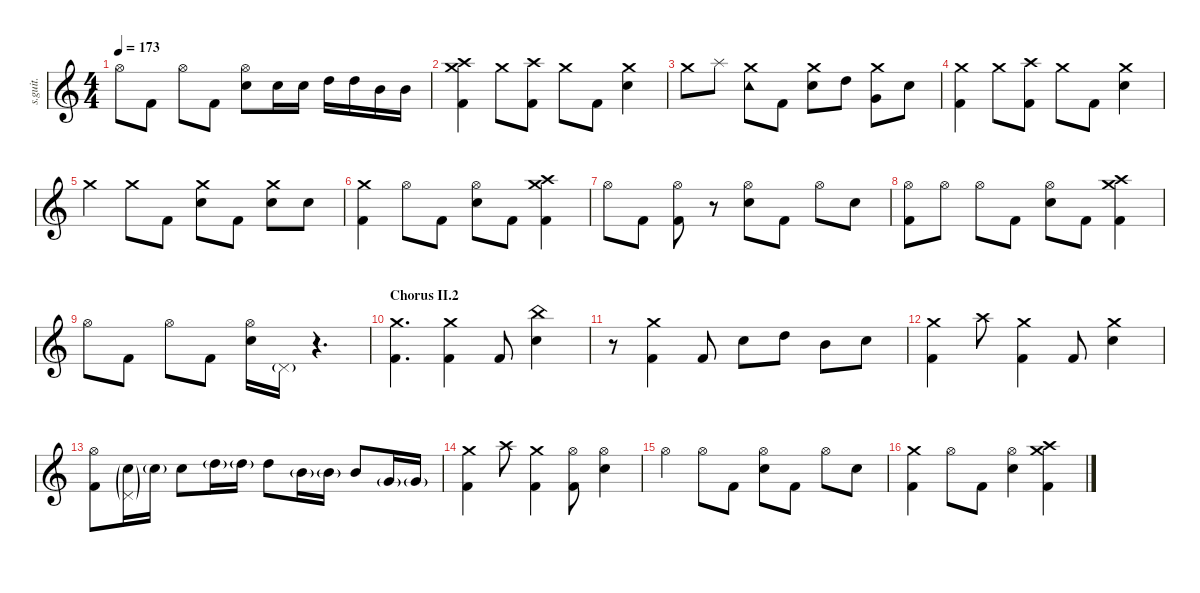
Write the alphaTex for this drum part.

\defaultSystemsLayout 4
\hideDynamics
\bracketExtendMode nobrackets
\track ("II" "s.guit.") {instrument percussion}
\staff {score}
\articulation defaults
\ts (4 4)
\tempo 173
\clef g2
\ks c "Hi-Hat (open)".8{lyrics (0 "") lyrics (1 "") lyrics (2 "") lyrics (3 "") lyrics (4 "") dy mf} "Kick (hit) 2".8{lyrics (0 "") lyrics (1 "") lyrics (2 "") lyrics (3 "") lyrics (4 "")} "Hi-Hat (open)".8{lyrics (0 "") lyrics (1 "") lyrics (2 "") lyrics (3 "") lyrics (4 "")} "Kick (hit) 2".8{lyrics (0 "") lyrics (1 "") lyrics (2 "") lyrics (3 "") lyrics (4 "")}
("Hi-Hat (open)" "Snare (hit) 2").8{lyrics (0 "") lyrics (1 "") lyrics (2 "") lyrics (3 "") lyrics (4 "")} "Snare (hit) 2".16{lyrics (0 "") lyrics (1 "") lyrics (2 "") lyrics (3 "") lyrics (4 "")} "Snare (hit) 2".16{lyrics (0 "") lyrics (1 "") lyrics (2 "") lyrics (3 "") lyrics (4 "")} "High Tom (hit)".16{lyrics (0 "") lyrics (1 "") lyrics (2 "") lyrics (3 "") lyrics (4 "")} "High Tom (hit)".16{lyrics (0 "") lyrics (1 "") lyrics (2 "") lyrics (3 "") lyrics (4 "")} "Mid Tom (hit)".16{lyrics (0 "") lyrics (1 "") lyrics (2 "") lyrics (3 "") lyrics (4 "")} "Mid Tom (hit)".16{lyrics (0 "") lyrics (1 "") lyrics (2 "") lyrics (3 "") lyrics (4 "")} |
("Kick (hit) 2" "Crash high (hit)" "Crash medium (hit)").4{lyrics (0 "") lyrics (1 "") lyrics (2 "") lyrics (3 "") lyrics (4 "")} "Crash medium (hit)".8{lyrics (0 "") lyrics (1 "") lyrics (2 "") lyrics (3 "") lyrics (4 "")} ("Kick (hit) 2" "Crash high (hit)").8{lyrics (0 "") lyrics (1 "") lyrics (2 "") lyrics (3 "") lyrics (4 "")} "Crash medium (hit)".8{lyrics (0 "") lyrics (1 "") lyrics (2 "") lyrics (3 "") lyrics (4 "")} "Kick (hit) 2".8{lyrics (0 "") lyrics (1 "") lyrics (2 "") lyrics (3 "") lyrics (4 "")} ("Snare (hit) 2" "Crash medium (hit)").4{lyrics (0 "") lyrics (1 "") lyrics (2 "") lyrics (3 "") lyrics (4 "")} |
"Crash medium (hit)".8{lyrics (0 "") lyrics (1 "") lyrics (2 "") lyrics (3 "") lyrics (4 "")} "Splash (hit)".8{lyrics (0 "") lyrics (1 "") lyrics (2 "") lyrics (3 "") lyrics (4 "")} ("Crash medium (hit)" "Tambourine (hit)").8{lyrics (0 "") lyrics (1 "") lyrics (2 "") lyrics (3 "") lyrics (4 "")} "Kick (hit) 2".8{lyrics (0 "") lyrics (1 "") lyrics (2 "") lyrics (3 "") lyrics (4 "")} ("Crash medium (hit)" "Snare (hit) 2").8{lyrics (0 "") lyrics (1 "") lyrics (2 "") lyrics (3 "") lyrics (4 "")} "High Tom (hit)".8{lyrics (0 "") lyrics (1 "") lyrics (2 "") lyrics (3 "") lyrics (4 "")} ("Crash medium (hit)" "Very Low Tom (hit)").8{lyrics (0 "") lyrics (1 "") lyrics (2 "") lyrics (3 "") lyrics (4 "")} "Snare (hit) 2".8{lyrics (0 "") lyrics (1 "") lyrics (2 "") lyrics (3 "") lyrics (4 "")} |
("Kick (hit) 2" "Crash medium (hit)").4{lyrics (0 "") lyrics (1 "") lyrics (2 "") lyrics (3 "") lyrics (4 "")} "Crash medium (hit)".8{lyrics (0 "") lyrics (1 "") lyrics (2 "") lyrics (3 "") lyrics (4 "")} ("Kick (hit) 2" "Crash high (hit)").8{lyrics (0 "") lyrics (1 "") lyrics (2 "") lyrics (3 "") lyrics (4 "")} "Crash medium (hit)".8{lyrics (0 "") lyrics (1 "") lyrics (2 "") lyrics (3 "") lyrics (4 "")} "Kick (hit) 2".8{lyrics (0 "") lyrics (1 "") lyrics (2 "") lyrics (3 "") lyrics (4 "")} ("Snare (hit) 2" "Crash medium (hit)").4{lyrics (0 "") lyrics (1 "") lyrics (2 "") lyrics (3 "") lyrics (4 "")} |
"Crash medium (hit)".4{lyrics (0 "") lyrics (1 "") lyrics (2 "") lyrics (3 "") lyrics (4 "")} "Crash medium (hit)".8{lyrics (0 "") lyrics (1 "") lyrics (2 "") lyrics (3 "") lyrics (4 "")} "Kick (hit) 2".8{lyrics (0 "") lyrics (1 "") lyrics (2 "") lyrics (3 "") lyrics (4 "")} ("Crash medium (hit)" "Snare (hit) 2").8{lyrics (0 "") lyrics (1 "") lyrics (2 "") lyrics (3 "") lyrics (4 "")} "Kick (hit) 2".8{lyrics (0 "") lyrics (1 "") lyrics (2 "") lyrics (3 "") lyrics (4 "")} ("Snare (hit) 2" "Crash medium (hit)").8{lyrics (0 "") lyrics (1 "") lyrics (2 "") lyrics (3 "") lyrics (4 "")} "Snare (hit) 2".8{lyrics (0 "") lyrics (1 "") lyrics (2 "") lyrics (3 "") lyrics (4 "")} |
("Kick (hit) 2" "Crash medium (hit)").4{lyrics (0 "") lyrics (1 "") lyrics (2 "") lyrics (3 "") lyrics (4 "")} "Hi-Hat (open)".8{lyrics (0 "") lyrics (1 "") lyrics (2 "") lyrics (3 "") lyrics (4 "")} "Kick (hit) 2".8{lyrics (0 "") lyrics (1 "") lyrics (2 "") lyrics (3 "") lyrics (4 "")} ("Snare (hit) 2" "Hi-Hat (open)").8{lyrics (0 "") lyrics (1 "") lyrics (2 "") lyrics (3 "") lyrics (4 "")} "Kick (hit) 2".8{lyrics (0 "") lyrics (1 "") lyrics (2 "") lyrics (3 "") lyrics (4 "")} ("Kick (hit) 2" "Crash high (hit)" "Crash medium (hit)").4{lyrics (0 "") lyrics (1 "") lyrics (2 "") lyrics (3 "") lyrics (4 "")} |
"Hi-Hat (open)".8{lyrics (0 "") lyrics (1 "") lyrics (2 "") lyrics (3 "") lyrics (4 "")} "Kick (hit) 2".8{lyrics (0 "") lyrics (1 "") lyrics (2 "") lyrics (3 "") lyrics (4 "")} ("Hi-Hat (open)" "Kick (hit) 2").8{lyrics (0 "") lyrics (1 "") lyrics (2 "") lyrics (3 "") lyrics (4 "")} r.8 ("Hi-Hat (open)" "Snare (hit) 2").8{lyrics (0 "") lyrics (1 "") lyrics (2 "") lyrics (3 "") lyrics (4 "")} "Kick (hit) 2".8{lyrics (0 "") lyrics (1 "") lyrics (2 "") lyrics (3 "") lyrics (4 "")} "Hi-Hat (open)".8{lyrics (0 "") lyrics (1 "") lyrics (2 "") lyrics (3 "") lyrics (4 "")} "Snare (hit) 2".8{lyrics (0 "") lyrics (1 "") lyrics (2 "") lyrics (3 "") lyrics (4 "")} |
("Kick (hit) 2" "Hi-Hat (open)").8{lyrics (0 "") lyrics (1 "") lyrics (2 "") lyrics (3 "") lyrics (4 "")} "Hi-Hat (open)".8{lyrics (0 "") lyrics (1 "") lyrics (2 "") lyrics (3 "") lyrics (4 "")} "Hi-Hat (open)".8{lyrics (0 "") lyrics (1 "") lyrics (2 "") lyrics (3 "") lyrics (4 "")} "Kick (hit) 2".8{lyrics (0 "") lyrics (1 "") lyrics (2 "") lyrics (3 "") lyrics (4 "")} ("Snare (hit) 2" "Hi-Hat (open)").8{lyrics (0 "") lyrics (1 "") lyrics (2 "") lyrics (3 "") lyrics (4 "")} "Kick (hit) 2".8{lyrics (0 "") lyrics (1 "") lyrics (2 "") lyrics (3 "") lyrics (4 "")} ("Kick (hit) 2" "Crash high (hit)" "Crash medium (hit)").4{lyrics (0 "") lyrics (1 "") lyrics (2 "") lyrics (3 "") lyrics (4 "")} |
"Hi-Hat (open)".8{lyrics (0 "") lyrics (1 "") lyrics (2 "") lyrics (3 "") lyrics (4 "")} "Kick (hit) 2".8{lyrics (0 "") lyrics (1 "") lyrics (2 "") lyrics (3 "") lyrics (4 "")} "Hi-Hat (open)".8{lyrics (0 "") lyrics (1 "") lyrics (2 "") lyrics (3 "") lyrics (4 "")} "Kick (hit) 2".8{lyrics (0 "") lyrics (1 "") lyrics (2 "") lyrics (3 "") lyrics (4 "")} ("Snare (hit) 2" "Hi-Hat (open)").16{lyrics (0 "") lyrics (1 "") lyrics (2 "") lyrics (3 "") lyrics (4 "")} "Pedal Hi-Hat (hit)"{g}.16{lyrics (0 "") lyrics (1 "") lyrics (2 "") lyrics (3 "") lyrics (4 "") dy pp} r.4{d} |
\section ("" "Chorus II.2")
("Kick (hit) 2" "Crash medium (hit)").4{d lyrics (0 "") lyrics (1 "") lyrics (2 "") lyrics (3 "") lyrics (4 "") dy mf} ("Kick (hit) 2" "Crash medium (hit)").4{lyrics (0 "") lyrics (1 "") lyrics (2 "") lyrics (3 "") lyrics (4 "")} "Kick (hit) 2".8{lyrics (0 "") lyrics (1 "") lyrics (2 "") lyrics (3 "") lyrics (4 "")} ("Snare (hit) 2" "China (hit)").4{lyrics (0 "") lyrics (1 "") lyrics (2 "") lyrics (3 "") lyrics (4 "")} |
r.8 ("Kick (hit) 2" "Crash medium (hit)").4{lyrics (0 "") lyrics (1 "") lyrics (2 "") lyrics (3 "") lyrics (4 "")} "Kick (hit) 2".8{lyrics (0 "") lyrics (1 "") lyrics (2 "") lyrics (3 "") lyrics (4 "")} "Snare (hit) 2".8{lyrics (0 "") lyrics (1 "") lyrics (2 "") lyrics (3 "") lyrics (4 "")} "High Tom (hit)".8{lyrics (0 "") lyrics (1 "") lyrics (2 "") lyrics (3 "") lyrics (4 "")} "Mid Tom (hit)".8{lyrics (0 "") lyrics (1 "") lyrics (2 "") lyrics (3 "") lyrics (4 "")} "Snare (hit) 2".8{lyrics (0 "") lyrics (1 "") lyrics (2 "") lyrics (3 "") lyrics (4 "")} |
("Kick (hit) 2" "Crash medium (hit)").4{lyrics (0 "") lyrics (1 "") lyrics (2 "") lyrics (3 "") lyrics (4 "")} "Crash high (hit)".8{lyrics (0 "") lyrics (1 "") lyrics (2 "") lyrics (3 "") lyrics (4 "")} ("Kick (hit) 2" "Crash medium (hit)").4{lyrics (0 "") lyrics (1 "") lyrics (2 "") lyrics (3 "") lyrics (4 "")} "Kick (hit) 2".8{lyrics (0 "") lyrics (1 "") lyrics (2 "") lyrics (3 "") lyrics (4 "")} ("Snare (hit) 2" "Crash medium (hit)").4{lyrics (0 "") lyrics (1 "") lyrics (2 "") lyrics (3 "") lyrics (4 "")} |
("Hi-Hat (open)" "Kick (hit) 2").8{lyrics (0 "") lyrics (1 "") lyrics (2 "") lyrics (3 "") lyrics (4 "")} ("Snare (hit) 2"{g} "Pedal Hi-Hat (hit)"{g}).16{lyrics (0 "") lyrics (1 "") lyrics (2 "") lyrics (3 "") lyrics (4 "")} "Snare (hit) 2"{g}.16{lyrics (0 "") lyrics (1 "") lyrics (2 "") lyrics (3 "") lyrics (4 "")} "Snare (hit) 2".8{lyrics (0 "") lyrics (1 "") lyrics (2 "") lyrics (3 "") lyrics (4 "")} "High Tom (hit)"{g}.16{lyrics (0 "") lyrics (1 "") lyrics (2 "") lyrics (3 "") lyrics (4 "")} "High Tom (hit)"{g}.16{lyrics (0 "") lyrics (1 "") lyrics (2 "") lyrics (3 "") lyrics (4 "")} "High Tom (hit)".8{lyrics (0 "") lyrics (1 "") lyrics (2 "") lyrics (3 "") lyrics (4 "")} "Mid Tom (hit)"{g}.16{lyrics (0 "") lyrics (1 "") lyrics (2 "") lyrics (3 "") lyrics (4 "")} "Mid Tom (hit)"{g}.16{lyrics (0 "") lyrics (1 "") lyrics (2 "") lyrics (3 "") lyrics (4 "")} "Mid Tom (hit)".8{lyrics (0 "") lyrics (1 "") lyrics (2 "") lyrics (3 "") lyrics (4 "")} "Very Low Tom (hit)"{g}.16{lyrics (0 "") lyrics (1 "") lyrics (2 "") lyrics (3 "") lyrics (4 "")} "Very Low Tom (hit)"{g}.16{lyrics (0 "") lyrics (1 "") lyrics (2 "") lyrics (3 "") lyrics (4 "")} |
("Kick (hit) 2" "Crash medium (hit)").4{lyrics (0 "") lyrics (1 "") lyrics (2 "") lyrics (3 "") lyrics (4 "")} "Crash high (hit)".8{lyrics (0 "") lyrics (1 "") lyrics (2 "") lyrics (3 "") lyrics (4 "")} ("Kick (hit) 2" "Crash medium (hit)").4{lyrics (0 "") lyrics (1 "") lyrics (2 "") lyrics (3 "") lyrics (4 "")} ("Kick (hit) 2" "Hi-Hat (open)").8{lyrics (0 "") lyrics (1 "") lyrics (2 "") lyrics (3 "") lyrics (4 "")} ("Snare (hit) 2" "Hi-Hat (open)").4{lyrics (0 "") lyrics (1 "") lyrics (2 "") lyrics (3 "") lyrics (4 "")} |
"Hi-Hat (open)".4{lyrics (0 "") lyrics (1 "") lyrics (2 "") lyrics (3 "") lyrics (4 "")} "Hi-Hat (open)".8{lyrics (0 "") lyrics (1 "") lyrics (2 "") lyrics (3 "") lyrics (4 "")} "Kick (hit) 2".8{lyrics (0 "") lyrics (1 "") lyrics (2 "") lyrics (3 "") lyrics (4 "")} ("Hi-Hat (open)" "Snare (hit) 2").8{lyrics (0 "") lyrics (1 "") lyrics (2 "") lyrics (3 "") lyrics (4 "")} "Kick (hit) 2".8{lyrics (0 "") lyrics (1 "") lyrics (2 "") lyrics (3 "") lyrics (4 "")} "Hi-Hat (open)".8{lyrics (0 "") lyrics (1 "") lyrics (2 "") lyrics (3 "") lyrics (4 "")} "Snare (hit) 2".8{lyrics (0 "") lyrics (1 "") lyrics (2 "") lyrics (3 "") lyrics (4 "")} |
("Kick (hit) 2" "Crash medium (hit)").4{lyrics (0 "") lyrics (1 "") lyrics (2 "") lyrics (3 "") lyrics (4 "")} "Hi-Hat (open)".8{lyrics (0 "") lyrics (1 "") lyrics (2 "") lyrics (3 "") lyrics (4 "")} "Kick (hit) 2".8{lyrics (0 "") lyrics (1 "") lyrics (2 "") lyrics (3 "") lyrics (4 "")} ("Snare (hit) 2" "Hi-Hat (open)").4{lyrics (0 "") lyrics (1 "") lyrics (2 "") lyrics (3 "") lyrics (4 "")} ("Kick (hit) 2" "Crash high (hit)" "Crash medium (hit)").4{lyrics (0 "") lyrics (1 "") lyrics (2 "") lyrics (3 "") lyrics (4 "")}
